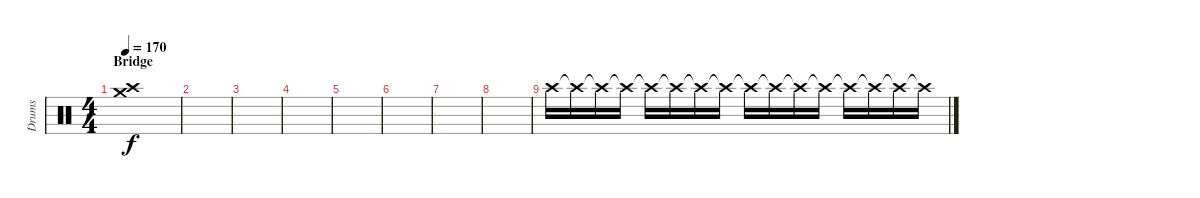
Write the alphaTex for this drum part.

\track ("Drums" "Drums") {instrument percussion}
\staff {score}
\articulation defaults
\ts (4 4)
\section ("" "Bridge")
\tempo 170
\clef neutral
\ks c
("Crash high (hit)" "Crash medium (hit)").1{dy f} |
|
|
|
|
|
|
|
"Crash high (hit)".16{volume 1} "Crash high (hit)"{t}.16{volume 2} "Crash high (hit)"{t}.16{volume 3} "Crash high (hit)"{t}.16{volume 4} "Crash high (hit)"{t}.16{volume 5} "Crash high (hit)"{t}.16{volume 6} "Crash high (hit)"{t}.16{volume 7} "Crash high (hit)"{t}.16{volume 8} "Crash high (hit)"{t}.16{volume 9} "Crash high (hit)"{t}.16{volume 10} "Crash high (hit)"{t}.16{volume 9} "Crash high (hit)"{t}.16{volume 8} "Crash high (hit)"{t}.16{volume 7} "Crash high (hit)"{t}.16{volume 6} "Crash high (hit)"{t}.16{volume 5} "Crash high (hit)"{t}.16{volume 4}
